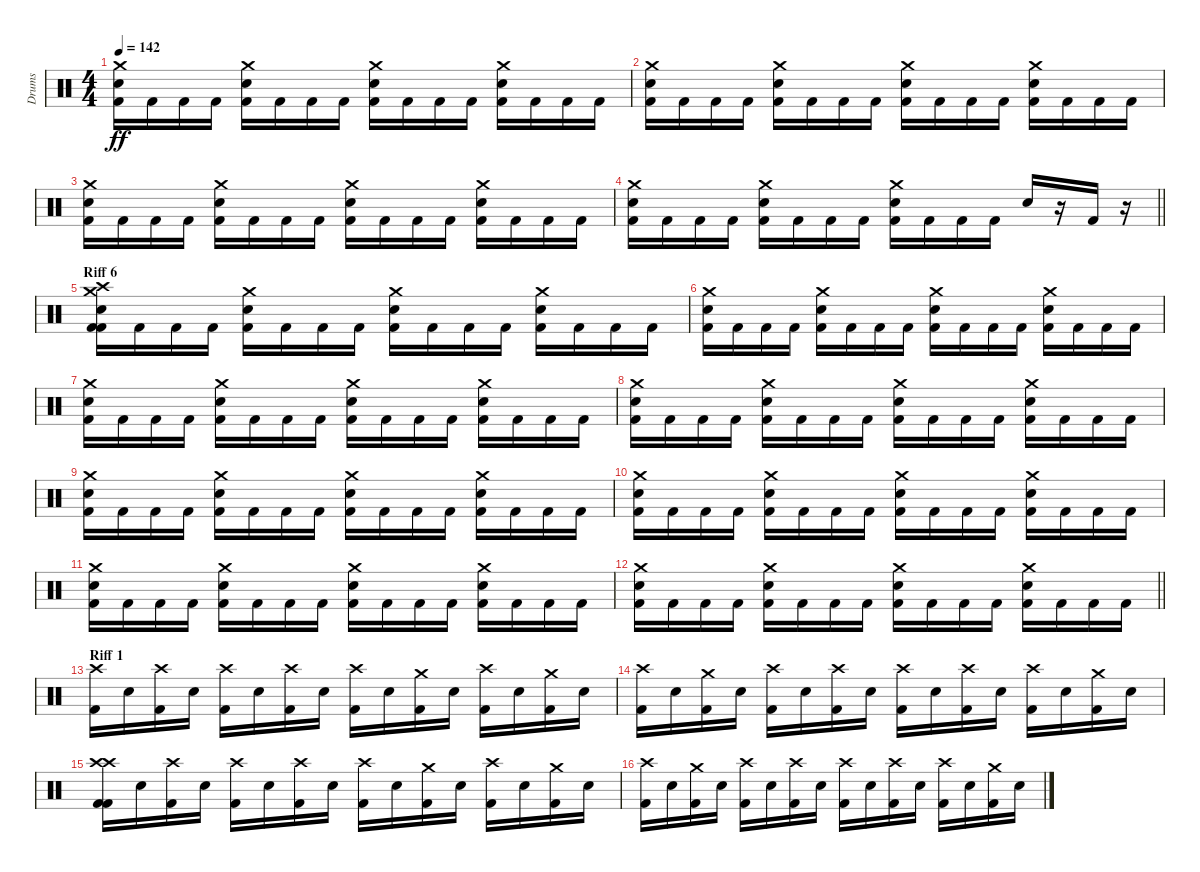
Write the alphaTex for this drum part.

\track ("Drums" "Drums") {instrument percussion}
\staff {score}
\articulation defaults
\ts (4 4)
\tempo 142
\clef neutral
\ks c
("Crash medium (hit)" "Kick (hit) 2" "Snare (hit) 2").16{dy ff} "Kick (hit) 2".16 "Kick (hit) 2".16 "Kick (hit) 2".16 ("Crash medium (hit)" "Kick (hit) 2" "Snare (hit) 2").16 "Kick (hit) 2".16 "Kick (hit) 2".16 "Kick (hit) 2".16 ("Crash medium (hit)" "Kick (hit) 2" "Snare (hit) 2").16 "Kick (hit) 2".16 "Kick (hit) 2".16 "Kick (hit) 2".16 ("Crash medium (hit)" "Kick (hit) 2" "Snare (hit) 2").16 "Kick (hit) 2".16 "Kick (hit) 2".16 "Kick (hit) 2".16 |
("Crash medium (hit)" "Kick (hit) 2" "Snare (hit) 2").16 "Kick (hit) 2".16 "Kick (hit) 2".16 "Kick (hit) 2".16 ("Crash medium (hit)" "Kick (hit) 2" "Snare (hit) 2").16 "Kick (hit) 2".16 "Kick (hit) 2".16 "Kick (hit) 2".16 ("Crash medium (hit)" "Kick (hit) 2" "Snare (hit) 2").16 "Kick (hit) 2".16 "Kick (hit) 2".16 "Kick (hit) 2".16 ("Crash medium (hit)" "Kick (hit) 2" "Snare (hit) 2").16 "Kick (hit) 2".16 "Kick (hit) 2".16 "Kick (hit) 2".16 |
("Crash medium (hit)" "Kick (hit) 2" "Snare (hit) 2").16 "Kick (hit) 2".16 "Kick (hit) 2".16 "Kick (hit) 2".16 ("Crash medium (hit)" "Kick (hit) 2" "Snare (hit) 2").16 "Kick (hit) 2".16 "Kick (hit) 2".16 "Kick (hit) 2".16 ("Crash medium (hit)" "Kick (hit) 2" "Snare (hit) 2").16 "Kick (hit) 2".16 "Kick (hit) 2".16 "Kick (hit) 2".16 ("Crash medium (hit)" "Kick (hit) 2" "Snare (hit) 2").16 "Kick (hit) 2".16 "Kick (hit) 2".16 "Kick (hit) 2".16 |
\barLineRight lightlight
("Crash medium (hit)" "Kick (hit) 2" "Snare (hit) 2").16 "Kick (hit) 2".16 "Kick (hit) 2".16 "Kick (hit) 2".16 ("Crash medium (hit)" "Kick (hit) 2" "Snare (hit) 2").16 "Kick (hit) 2".16 "Kick (hit) 2".16 "Kick (hit) 2".16 ("Crash medium (hit)" "Kick (hit) 2" "Snare (hit) 2").16 "Kick (hit) 2".16 "Kick (hit) 2".16 "Kick (hit) 2".16 "Snare (hit) 2".16 r.16 "Kick (hit) 2".16 r.16 |
\section ("" "Riff 6")
("Crash high (hit)" "Kick (hit) 2" "Crash medium (hit)" "Kick (hit) 2" "Snare (hit) 2").16 "Kick (hit) 2".16 "Kick (hit) 2".16 "Kick (hit) 2".16 ("Crash medium (hit)" "Kick (hit) 2" "Snare (hit) 2").16 "Kick (hit) 2".16 "Kick (hit) 2".16 "Kick (hit) 2".16 ("Crash medium (hit)" "Kick (hit) 2" "Snare (hit) 2").16 "Kick (hit) 2".16 "Kick (hit) 2".16 "Kick (hit) 2".16 ("Crash medium (hit)" "Kick (hit) 2" "Snare (hit) 2").16 "Kick (hit) 2".16 "Kick (hit) 2".16 "Kick (hit) 2".16 |
("Crash medium (hit)" "Kick (hit) 2" "Snare (hit) 2").16 "Kick (hit) 2".16 "Kick (hit) 2".16 "Kick (hit) 2".16 ("Crash medium (hit)" "Kick (hit) 2" "Snare (hit) 2").16 "Kick (hit) 2".16 "Kick (hit) 2".16 "Kick (hit) 2".16 ("Crash medium (hit)" "Kick (hit) 2" "Snare (hit) 2").16 "Kick (hit) 2".16 "Kick (hit) 2".16 "Kick (hit) 2".16 ("Crash medium (hit)" "Kick (hit) 2" "Snare (hit) 2").16 "Kick (hit) 2".16 "Kick (hit) 2".16 "Kick (hit) 2".16 |
("Crash medium (hit)" "Kick (hit) 2" "Snare (hit) 2").16 "Kick (hit) 2".16 "Kick (hit) 2".16 "Kick (hit) 2".16 ("Crash medium (hit)" "Kick (hit) 2" "Snare (hit) 2").16 "Kick (hit) 2".16 "Kick (hit) 2".16 "Kick (hit) 2".16 ("Crash medium (hit)" "Kick (hit) 2" "Snare (hit) 2").16 "Kick (hit) 2".16 "Kick (hit) 2".16 "Kick (hit) 2".16 ("Crash medium (hit)" "Kick (hit) 2" "Snare (hit) 2").16 "Kick (hit) 2".16 "Kick (hit) 2".16 "Kick (hit) 2".16 |
("Crash medium (hit)" "Kick (hit) 2" "Snare (hit) 2").16 "Kick (hit) 2".16 "Kick (hit) 2".16 "Kick (hit) 2".16 ("Crash medium (hit)" "Kick (hit) 2" "Snare (hit) 2").16 "Kick (hit) 2".16 "Kick (hit) 2".16 "Kick (hit) 2".16 ("Crash medium (hit)" "Kick (hit) 2" "Snare (hit) 2").16 "Kick (hit) 2".16 "Kick (hit) 2".16 "Kick (hit) 2".16 ("Crash medium (hit)" "Kick (hit) 2" "Snare (hit) 2").16 "Kick (hit) 2".16 "Kick (hit) 2".16 "Kick (hit) 2".16 |
("Crash medium (hit)" "Kick (hit) 2" "Snare (hit) 2").16 "Kick (hit) 2".16 "Kick (hit) 2".16 "Kick (hit) 2".16 ("Crash medium (hit)" "Kick (hit) 2" "Snare (hit) 2").16 "Kick (hit) 2".16 "Kick (hit) 2".16 "Kick (hit) 2".16 ("Crash medium (hit)" "Kick (hit) 2" "Snare (hit) 2").16 "Kick (hit) 2".16 "Kick (hit) 2".16 "Kick (hit) 2".16 ("Crash medium (hit)" "Kick (hit) 2" "Snare (hit) 2").16 "Kick (hit) 2".16 "Kick (hit) 2".16 "Kick (hit) 2".16 |
("Crash medium (hit)" "Kick (hit) 2" "Snare (hit) 2").16 "Kick (hit) 2".16 "Kick (hit) 2".16 "Kick (hit) 2".16 ("Crash medium (hit)" "Kick (hit) 2" "Snare (hit) 2").16 "Kick (hit) 2".16 "Kick (hit) 2".16 "Kick (hit) 2".16 ("Crash medium (hit)" "Kick (hit) 2" "Snare (hit) 2").16 "Kick (hit) 2".16 "Kick (hit) 2".16 "Kick (hit) 2".16 ("Crash medium (hit)" "Kick (hit) 2" "Snare (hit) 2").16 "Kick (hit) 2".16 "Kick (hit) 2".16 "Kick (hit) 2".16 |
("Crash medium (hit)" "Kick (hit) 2" "Snare (hit) 2").16 "Kick (hit) 2".16 "Kick (hit) 2".16 "Kick (hit) 2".16 ("Crash medium (hit)" "Kick (hit) 2" "Snare (hit) 2").16 "Kick (hit) 2".16 "Kick (hit) 2".16 "Kick (hit) 2".16 ("Crash medium (hit)" "Kick (hit) 2" "Snare (hit) 2").16 "Kick (hit) 2".16 "Kick (hit) 2".16 "Kick (hit) 2".16 ("Crash medium (hit)" "Kick (hit) 2" "Snare (hit) 2").16 "Kick (hit) 2".16 "Kick (hit) 2".16 "Kick (hit) 2".16 |
\barLineRight lightlight
("Crash medium (hit)" "Kick (hit) 2" "Snare (hit) 2").16 "Kick (hit) 2".16 "Kick (hit) 2".16 "Kick (hit) 2".16 ("Crash medium (hit)" "Kick (hit) 2" "Snare (hit) 2").16 "Kick (hit) 2".16 "Kick (hit) 2".16 "Kick (hit) 2".16 ("Crash medium (hit)" "Kick (hit) 2" "Snare (hit) 2").16 "Kick (hit) 2".16 "Kick (hit) 2".16 "Kick (hit) 2".16 ("Crash medium (hit)" "Kick (hit) 2" "Snare (hit) 2").16 "Kick (hit) 2".16 "Kick (hit) 2".16 "Kick (hit) 2".16 |
\section ("" "Riff 1")
("Crash high (hit)" "Kick (hit) 2").16 "Snare (hit) 2".16 ("Crash high (hit)" "Kick (hit) 2").16 "Snare (hit) 2".16 ("Crash high (hit)" "Kick (hit) 2").16 "Snare (hit) 2".16 ("Crash high (hit)" "Kick (hit) 2").16 "Snare (hit) 2".16 ("Crash high (hit)" "Kick (hit) 2").16 "Snare (hit) 2".16 ("Crash medium (hit)" "Kick (hit) 2").16 "Snare (hit) 2".16 ("Crash high (hit)" "Kick (hit) 2").16 "Snare (hit) 2".16 ("Crash medium (hit)" "Kick (hit) 2").16 "Snare (hit) 2".16 |
("Crash high (hit)" "Kick (hit) 2").16 "Snare (hit) 2".16 ("Crash medium (hit)" "Kick (hit) 2").16 "Snare (hit) 2".16 ("Crash high (hit)" "Kick (hit) 2").16 "Snare (hit) 2".16 ("Crash high (hit)" "Kick (hit) 2").16 "Snare (hit) 2".16 ("Crash high (hit)" "Kick (hit) 2").16 "Snare (hit) 2".16 ("Crash high (hit)" "Kick (hit) 2").16 "Snare (hit) 2".16 ("Crash high (hit)" "Kick (hit) 2").16 "Snare (hit) 2".16 ("Crash medium (hit)" "Kick (hit) 2").16 "Snare (hit) 2".16 |
("Crash high (hit)" "Kick (hit) 2" "Crash high (hit)" "Kick (hit) 2").16 "Snare (hit) 2".16 ("Crash high (hit)" "Kick (hit) 2").16 "Snare (hit) 2".16 ("Crash high (hit)" "Kick (hit) 2").16 "Snare (hit) 2".16 ("Crash high (hit)" "Kick (hit) 2").16 "Snare (hit) 2".16 ("Crash high (hit)" "Kick (hit) 2").16 "Snare (hit) 2".16 ("Crash medium (hit)" "Kick (hit) 2").16 "Snare (hit) 2".16 ("Crash high (hit)" "Kick (hit) 2").16 "Snare (hit) 2".16 ("Crash medium (hit)" "Kick (hit) 2").16 "Snare (hit) 2".16 |
("Crash high (hit)" "Kick (hit) 2").16 "Snare (hit) 2".16 ("Crash medium (hit)" "Kick (hit) 2").16 "Snare (hit) 2".16 ("Crash high (hit)" "Kick (hit) 2").16 "Snare (hit) 2".16 ("Crash high (hit)" "Kick (hit) 2").16 "Snare (hit) 2".16 ("Crash high (hit)" "Kick (hit) 2").16 "Snare (hit) 2".16 ("Crash high (hit)" "Kick (hit) 2").16 "Snare (hit) 2".16 ("Crash high (hit)" "Kick (hit) 2").16 "Snare (hit) 2".16 ("Crash medium (hit)" "Kick (hit) 2").16 "Snare (hit) 2".16
